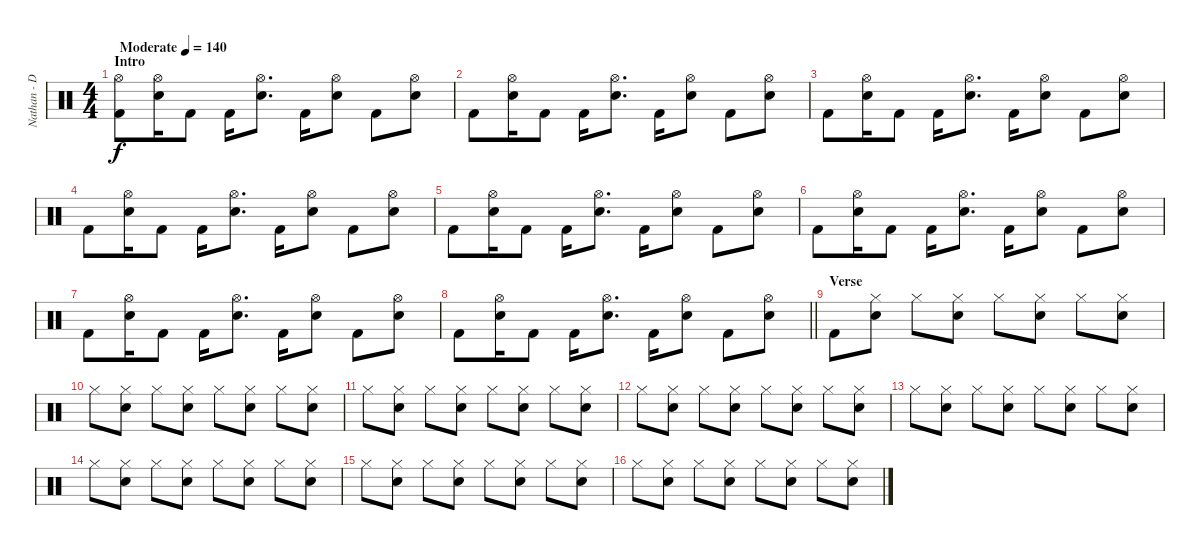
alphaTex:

\track ("Nathan - Drums MIDI" "Nathan - D") {instrument percussion}
\staff {score}
\articulation defaults
\ts (4 4)
\section ("" "Intro")
\tempo (140 "Moderate")
\clef neutral
\ks c
("Hi-Hat (open)" "Kick (hit) 2").8{dy f} ("Hi-Hat (open)" "Snare (hit) 2").16 "Kick (hit) 2".8 "Kick (hit) 2".16 ("Hi-Hat (open)" "Snare (hit) 2").8{d} "Kick (hit) 2".16 ("Hi-Hat (open)" "Snare (hit) 2").8 "Kick (hit) 2".8 ("Hi-Hat (open)" "Snare (hit) 2").8 |
"Kick (hit) 2".8 ("Hi-Hat (open)" "Snare (hit) 2").16 "Kick (hit) 2".8 "Kick (hit) 2".16 ("Hi-Hat (open)" "Snare (hit) 2").8{d} "Kick (hit) 2".16 ("Hi-Hat (open)" "Snare (hit) 2").8 "Kick (hit) 2".8 ("Hi-Hat (open)" "Snare (hit) 2").8 |
"Kick (hit) 2".8 ("Hi-Hat (open)" "Snare (hit) 2").16 "Kick (hit) 2".8 "Kick (hit) 2".16 ("Hi-Hat (open)" "Snare (hit) 2").8{d} "Kick (hit) 2".16 ("Hi-Hat (open)" "Snare (hit) 2").8 "Kick (hit) 2".8 ("Hi-Hat (open)" "Snare (hit) 2").8 |
"Kick (hit) 2".8 ("Hi-Hat (open)" "Snare (hit) 2").16 "Kick (hit) 2".8 "Kick (hit) 2".16 ("Hi-Hat (open)" "Snare (hit) 2").8{d} "Kick (hit) 2".16 ("Hi-Hat (open)" "Snare (hit) 2").8 "Kick (hit) 2".8 ("Hi-Hat (open)" "Snare (hit) 2").8 |
"Kick (hit) 2".8 ("Hi-Hat (open)" "Snare (hit) 2").16 "Kick (hit) 2".8 "Kick (hit) 2".16 ("Hi-Hat (open)" "Snare (hit) 2").8{d} "Kick (hit) 2".16 ("Hi-Hat (open)" "Snare (hit) 2").8 "Kick (hit) 2".8 ("Hi-Hat (open)" "Snare (hit) 2").8 |
"Kick (hit) 2".8 ("Hi-Hat (open)" "Snare (hit) 2").16 "Kick (hit) 2".8 "Kick (hit) 2".16 ("Hi-Hat (open)" "Snare (hit) 2").8{d} "Kick (hit) 2".16 ("Hi-Hat (open)" "Snare (hit) 2").8 "Kick (hit) 2".8 ("Hi-Hat (open)" "Snare (hit) 2").8 |
"Kick (hit) 2".8 ("Hi-Hat (open)" "Snare (hit) 2").16 "Kick (hit) 2".8 "Kick (hit) 2".16 ("Hi-Hat (open)" "Snare (hit) 2").8{d} "Kick (hit) 2".16 ("Hi-Hat (open)" "Snare (hit) 2").8 "Kick (hit) 2".8 ("Hi-Hat (open)" "Snare (hit) 2").8 |
\barLineRight lightlight "Kick (hit) 2".8
("Hi-Hat (open)" "Snare (hit) 2").16 "Kick (hit) 2".8 "Kick (hit) 2".16 ("Hi-Hat (open)" "Snare (hit) 2").8{d} "Kick (hit) 2".16 ("Hi-Hat (open)" "Snare (hit) 2").8 "Kick (hit) 2".8 ("Hi-Hat (open)" "Snare (hit) 2").8 |
\section ("" "Verse")
"Kick (hit) 2".8 ("Hi-Hat (closed)" "Snare (hit) 2").8 "Hi-Hat (closed)".8 ("Hi-Hat (closed)" "Snare (hit) 2").8 "Hi-Hat (closed)".8 ("Hi-Hat (closed)" "Snare (hit) 2").8 "Hi-Hat (closed)".8 ("Hi-Hat (closed)" "Snare (hit) 2").8 |
"Hi-Hat (closed)".8 ("Hi-Hat (closed)" "Snare (hit) 2").8 "Hi-Hat (closed)".8 ("Hi-Hat (closed)" "Snare (hit) 2").8 "Hi-Hat (closed)".8 ("Hi-Hat (closed)" "Snare (hit) 2").8 "Hi-Hat (closed)".8 ("Hi-Hat (closed)" "Snare (hit) 2").8 |
"Hi-Hat (closed)".8 ("Hi-Hat (closed)" "Snare (hit) 2").8 "Hi-Hat (closed)".8 ("Hi-Hat (closed)" "Snare (hit) 2").8 "Hi-Hat (closed)".8 ("Hi-Hat (closed)" "Snare (hit) 2").8 "Hi-Hat (closed)".8 ("Hi-Hat (closed)" "Snare (hit) 2").8 |
"Hi-Hat (closed)".8 ("Hi-Hat (closed)" "Snare (hit) 2").8 "Hi-Hat (closed)".8 ("Hi-Hat (closed)" "Snare (hit) 2").8 "Hi-Hat (closed)".8 ("Hi-Hat (closed)" "Snare (hit) 2").8 "Hi-Hat (closed)".8 ("Hi-Hat (closed)" "Snare (hit) 2").8 |
"Hi-Hat (closed)".8 ("Hi-Hat (closed)" "Snare (hit) 2").8 "Hi-Hat (closed)".8 ("Hi-Hat (closed)" "Snare (hit) 2").8 "Hi-Hat (closed)".8 ("Hi-Hat (closed)" "Snare (hit) 2").8 "Hi-Hat (closed)".8 ("Hi-Hat (closed)" "Snare (hit) 2").8 |
"Hi-Hat (closed)".8 ("Hi-Hat (closed)" "Snare (hit) 2").8 "Hi-Hat (closed)".8 ("Hi-Hat (closed)" "Snare (hit) 2").8 "Hi-Hat (closed)".8 ("Hi-Hat (closed)" "Snare (hit) 2").8 "Hi-Hat (closed)".8 ("Hi-Hat (closed)" "Snare (hit) 2").8 |
"Hi-Hat (closed)".8 ("Hi-Hat (closed)" "Snare (hit) 2").8 "Hi-Hat (closed)".8 ("Hi-Hat (closed)" "Snare (hit) 2").8 "Hi-Hat (closed)".8 ("Hi-Hat (closed)" "Snare (hit) 2").8 "Hi-Hat (closed)".8 ("Hi-Hat (closed)" "Snare (hit) 2").8 |
"Hi-Hat (closed)".8 ("Hi-Hat (closed)" "Snare (hit) 2").8 "Hi-Hat (closed)".8 ("Hi-Hat (closed)" "Snare (hit) 2").8 "Hi-Hat (closed)".8 ("Hi-Hat (closed)" "Snare (hit) 2").8 "Hi-Hat (closed)".8 ("Hi-Hat (closed)" "Snare (hit) 2").8
